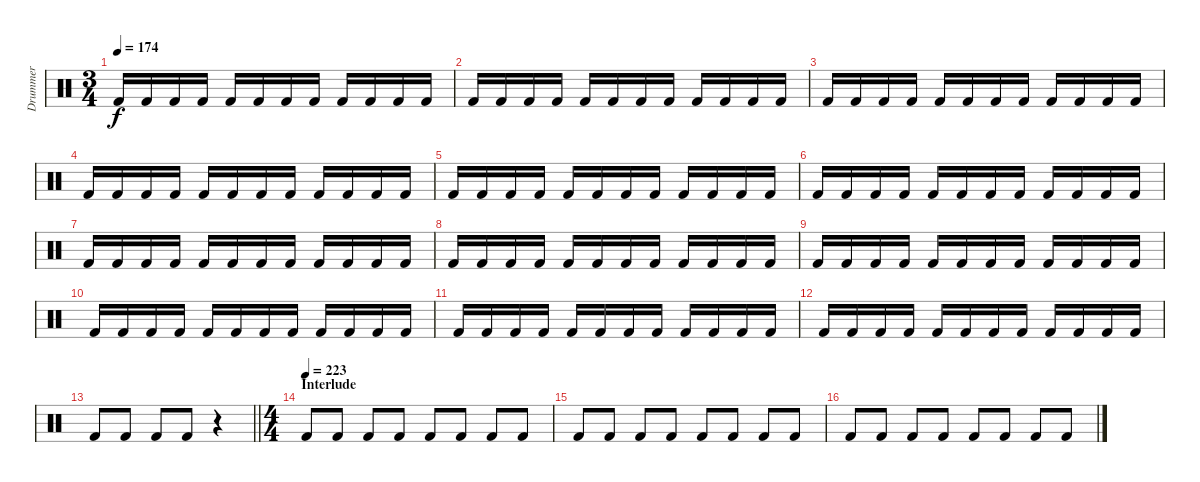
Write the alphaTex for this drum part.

\track ("Drummer" "Drummer") {instrument percussion}
\staff {score}
\articulation defaults
\ts (3 4)
\tempo 174
\clef neutral
\ks c "Kick (hit) 2".16{dy f} "Kick (hit) 2".16 "Kick (hit) 2".16 "Kick (hit) 2".16 "Kick (hit) 2".16 "Kick (hit) 2".16 "Kick (hit) 2".16 "Kick (hit) 2".16 "Kick (hit) 2".16 "Kick (hit) 2".16 "Kick (hit) 2".16 "Kick (hit) 2".16
|
"Kick (hit) 2".16 "Kick (hit) 2".16 "Kick (hit) 2".16 "Kick (hit) 2".16 "Kick (hit) 2".16 "Kick (hit) 2".16 "Kick (hit) 2".16 "Kick (hit) 2".16 "Kick (hit) 2".16 "Kick (hit) 2".16 "Kick (hit) 2".16 "Kick (hit) 2".16 |
"Kick (hit) 2".16 "Kick (hit) 2".16 "Kick (hit) 2".16 "Kick (hit) 2".16 "Kick (hit) 2".16 "Kick (hit) 2".16 "Kick (hit) 2".16 "Kick (hit) 2".16 "Kick (hit) 2".16 "Kick (hit) 2".16 "Kick (hit) 2".16 "Kick (hit) 2".16 |
"Kick (hit) 2".16 "Kick (hit) 2".16 "Kick (hit) 2".16 "Kick (hit) 2".16 "Kick (hit) 2".16 "Kick (hit) 2".16 "Kick (hit) 2".16 "Kick (hit) 2".16 "Kick (hit) 2".16 "Kick (hit) 2".16 "Kick (hit) 2".16 "Kick (hit) 2".16 |
"Kick (hit) 2".16 "Kick (hit) 2".16 "Kick (hit) 2".16 "Kick (hit) 2".16 "Kick (hit) 2".16 "Kick (hit) 2".16 "Kick (hit) 2".16 "Kick (hit) 2".16 "Kick (hit) 2".16 "Kick (hit) 2".16 "Kick (hit) 2".16 "Kick (hit) 2".16 |
"Kick (hit) 2".16 "Kick (hit) 2".16 "Kick (hit) 2".16 "Kick (hit) 2".16 "Kick (hit) 2".16 "Kick (hit) 2".16 "Kick (hit) 2".16 "Kick (hit) 2".16 "Kick (hit) 2".16 "Kick (hit) 2".16 "Kick (hit) 2".16 "Kick (hit) 2".16 |
"Kick (hit) 2".16 "Kick (hit) 2".16 "Kick (hit) 2".16 "Kick (hit) 2".16 "Kick (hit) 2".16 "Kick (hit) 2".16 "Kick (hit) 2".16 "Kick (hit) 2".16 "Kick (hit) 2".16 "Kick (hit) 2".16 "Kick (hit) 2".16 "Kick (hit) 2".16 |
"Kick (hit) 2".16 "Kick (hit) 2".16 "Kick (hit) 2".16 "Kick (hit) 2".16 "Kick (hit) 2".16 "Kick (hit) 2".16 "Kick (hit) 2".16 "Kick (hit) 2".16 "Kick (hit) 2".16 "Kick (hit) 2".16 "Kick (hit) 2".16 "Kick (hit) 2".16 |
"Kick (hit) 2".16 "Kick (hit) 2".16 "Kick (hit) 2".16 "Kick (hit) 2".16 "Kick (hit) 2".16 "Kick (hit) 2".16 "Kick (hit) 2".16 "Kick (hit) 2".16 "Kick (hit) 2".16 "Kick (hit) 2".16 "Kick (hit) 2".16 "Kick (hit) 2".16 |
"Kick (hit) 2".16 "Kick (hit) 2".16 "Kick (hit) 2".16 "Kick (hit) 2".16 "Kick (hit) 2".16 "Kick (hit) 2".16 "Kick (hit) 2".16 "Kick (hit) 2".16 "Kick (hit) 2".16 "Kick (hit) 2".16 "Kick (hit) 2".16 "Kick (hit) 2".16 |
"Kick (hit) 2".16 "Kick (hit) 2".16 "Kick (hit) 2".16 "Kick (hit) 2".16 "Kick (hit) 2".16 "Kick (hit) 2".16 "Kick (hit) 2".16 "Kick (hit) 2".16 "Kick (hit) 2".16 "Kick (hit) 2".16 "Kick (hit) 2".16 "Kick (hit) 2".16 |
"Kick (hit) 2".16 "Kick (hit) 2".16 "Kick (hit) 2".16 "Kick (hit) 2".16 "Kick (hit) 2".16 "Kick (hit) 2".16 "Kick (hit) 2".16 "Kick (hit) 2".16 "Kick (hit) 2".16 "Kick (hit) 2".16 "Kick (hit) 2".16 "Kick (hit) 2".16 |
\barLineRight lightlight "Kick (hit) 2".8 "Kick (hit) 2".8 "Kick (hit) 2".8 "Kick (hit) 2".8
r.4 |
\ts (4 4)
\section ("" "Interlude")
\tempo (223)
"Kick (hit) 2".8 "Kick (hit) 2".8 "Kick (hit) 2".8 "Kick (hit) 2".8 "Kick (hit) 2".8 "Kick (hit) 2".8 "Kick (hit) 2".8 "Kick (hit) 2".8 |
"Kick (hit) 2".8 "Kick (hit) 2".8 "Kick (hit) 2".8 "Kick (hit) 2".8 "Kick (hit) 2".8 "Kick (hit) 2".8 "Kick (hit) 2".8 "Kick (hit) 2".8 |
"Kick (hit) 2".8 "Kick (hit) 2".8 "Kick (hit) 2".8 "Kick (hit) 2".8 "Kick (hit) 2".8 "Kick (hit) 2".8 "Kick (hit) 2".8 "Kick (hit) 2".8
